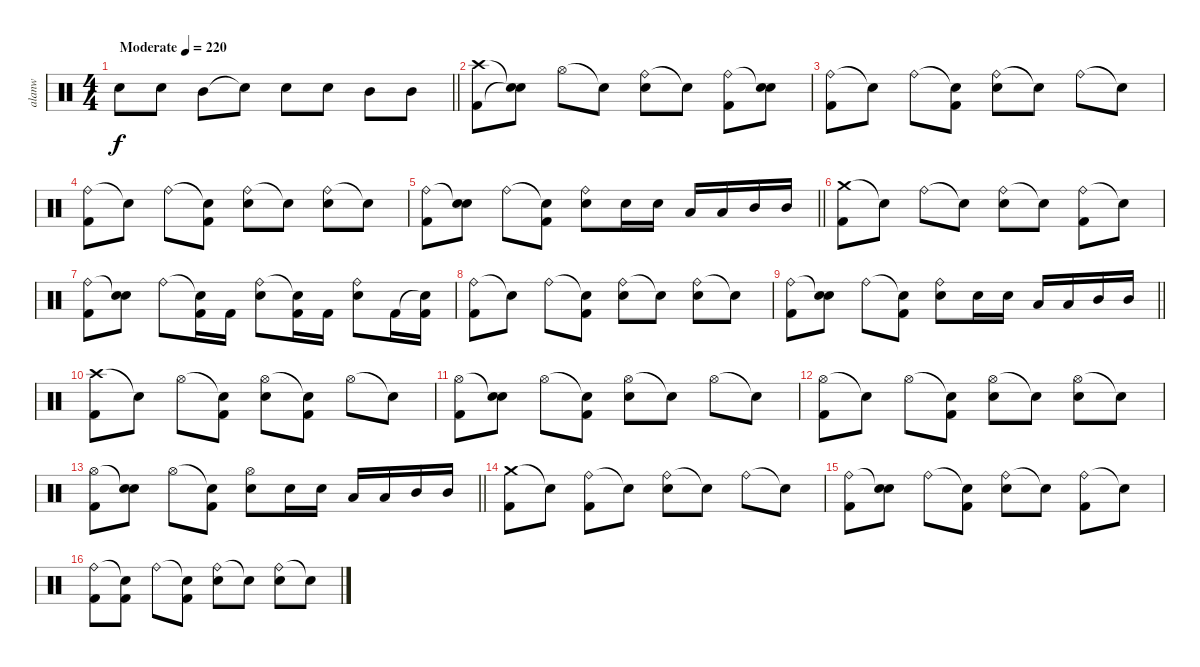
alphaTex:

\track ("alanw" "alanw") {instrument percussion}
\staff {score}
\articulation defaults
\ts (4 4)
\tempo (220 "Moderate")
\tempo 170
\tempo (220 "Moderate")
\clef neutral
\barLineRight lightlight
\ks c "Electric Snare (hit)".8{dy f} "Electric Snare (hit)".8 "Mid Tom (hit)".8 "Snare (hit)"{t}.8 "Electric Snare (hit)".8 "Electric Snare (hit)".8 "Mid Tom (hit)".8 "Mid Tom (hit)".8
|
("Crash high (hit)" "Kick (hit) 2").8 ("Snare (hit)"{t} "Snare (hit)"{t}).8 "Hi-Hat (open)".8 "Snare (hit)"{t}.8 ("Ride (bell)" "Electric Snare (hit)").8 "Snare (hit)"{t}.8 ("Ride (bell)" "Kick (hit) 2").8 ("Snare (hit)"{t} "Electric Snare (hit)").8 |
("Ride (bell)" "Kick (hit) 2").8 "Snare (hit)"{t}.8 "Ride (bell)".8 ("Snare (hit)"{t} "Kick (hit) 2").8 ("Ride (bell)" "Electric Snare (hit)").8 "Snare (hit)"{t}.8 "Ride (bell)".8 "Snare (hit)"{t}.8 |
("Ride (bell)" "Kick (hit) 2").8 "Snare (hit)"{t}.8 "Ride (bell)".8 ("Snare (hit)"{t} "Kick (hit) 2").8 ("Ride (bell)" "Electric Snare (hit)").8 "Snare (hit)"{t}.8 ("Ride (bell)" "Electric Snare (hit)").8 "Snare (hit)"{t}.8 |
\barLineRight lightlight
("Ride (bell)" "Kick (hit) 2").8 ("Snare (hit)"{t} "Electric Snare (hit)").8 "Ride (bell)".8 ("Snare (hit)"{t} "Kick (hit) 2").8 ("Ride (bell)" "Electric Snare (hit)").8 "Electric Snare (hit)".16 "Electric Snare (hit)".16 "Low Tom (hit)".16 "Low Tom (hit)".16 "Mid Tom (hit)".16 "Mid Tom (hit)".16 |
("Crash medium (hit)" "Kick (hit) 2").8 "Snare (hit)"{t}.8 "Ride (bell)".8 "Snare (hit)"{t}.8 ("Ride (bell)" "Electric Snare (hit)").8 "Snare (hit)"{t}.8 ("Ride (bell)" "Kick (hit) 2").8 "Snare (hit)"{t}.8 |
("Ride (bell)" "Kick (hit) 2").8 ("Snare (hit)"{t} "Electric Snare (hit)").8 "Ride (bell)".8 ("Snare (hit)"{t} "Kick (hit) 2").16 "Kick (hit) 2".16 ("Ride (bell)" "Electric Snare (hit)").8 ("Snare (hit)"{t} "Kick (hit) 2").16 "Kick (hit) 2".16 ("Ride (bell)" "Electric Snare (hit)").8 "Kick (hit) 2".16 ("Snare (hit)"{t} "Kick (hit) 2").16 |
("Ride (bell)" "Kick (hit) 2").8 "Snare (hit)"{t}.8 "Ride (bell)".8 ("Snare (hit)"{t} "Kick (hit) 2").8 ("Ride (bell)" "Electric Snare (hit)").8 "Snare (hit)"{t}.8 ("Ride (bell)" "Electric Snare (hit)").8 "Snare (hit)"{t}.8 |
\barLineRight lightlight
("Ride (bell)" "Kick (hit) 2").8 ("Snare (hit)"{t} "Electric Snare (hit)").8 "Ride (bell)".8 ("Snare (hit)"{t} "Kick (hit) 2").8 ("Ride (bell)" "Electric Snare (hit)").8 "Electric Snare (hit)".16 "Electric Snare (hit)".16 "Low Tom (hit)".16 "Low Tom (hit)".16 "Mid Tom (hit)".16 "Mid Tom (hit)".16 |
("Crash high (hit)" "Kick (hit) 2").8 "Snare (hit)"{t}.8 "Hi-Hat (open)".8 ("Snare (hit)"{t} "Kick (hit) 2").8 ("Hi-Hat (open)" "Electric Snare (hit)").8 ("Snare (hit)"{t} "Kick (hit) 2").8 "Hi-Hat (open)".8 "Snare (hit)"{t}.8 |
("Hi-Hat (open)" "Kick (hit) 2").8 ("Snare (hit)"{t} "Electric Snare (hit)").8 "Hi-Hat (open)".8 ("Snare (hit)"{t} "Kick (hit) 2").8 ("Hi-Hat (open)" "Electric Snare (hit)").8 "Snare (hit)"{t}.8 "Hi-Hat (open)".8 "Snare (hit)"{t}.8 |
("Hi-Hat (open)" "Kick (hit) 2").8 "Snare (hit)"{t}.8 "Hi-Hat (open)".8 ("Snare (hit)"{t} "Kick (hit) 2").8 ("Hi-Hat (open)" "Electric Snare (hit)").8 "Snare (hit)"{t}.8 ("Hi-Hat (open)" "Electric Snare (hit)").8 "Snare (hit)"{t}.8 |
\barLineRight lightlight
("Hi-Hat (open)" "Kick (hit) 2").8 ("Snare (hit)"{t} "Electric Snare (hit)").8 "Hi-Hat (open)".8 ("Snare (hit)"{t} "Kick (hit) 2").8 ("Hi-Hat (open)" "Electric Snare (hit)").8 "Electric Snare (hit)".16 "Electric Snare (hit)".16 "Low Tom (hit)".16 "Low Tom (hit)".16 "Mid Tom (hit)".16 "Mid Tom (hit)".16 |
("Crash medium (hit)" "Kick (hit) 2").8 "Snare (hit)"{t}.8 ("Ride (bell)" "Kick (hit) 2").8 "Snare (hit)"{t}.8 ("Ride (bell)" "Electric Snare (hit)").8 "Snare (hit)"{t}.8 "Ride (bell)".8 "Snare (hit)"{t}.8 |
("Ride (bell)" "Kick (hit) 2").8 ("Snare (hit)"{t} "Electric Snare (hit)").8 "Ride (bell)".8 ("Snare (hit)"{t} "Kick (hit) 2").8 ("Ride (bell)" "Electric Snare (hit)").8 "Snare (hit)"{t}.8 ("Ride (bell)" "Kick (hit) 2").8 "Snare (hit)"{t}.8 |
("Ride (bell)" "Kick (hit) 2").8 ("Snare (hit)"{t} "Kick (hit) 2").8 "Ride (bell)".8 ("Snare (hit)"{t} "Kick (hit) 2").8 ("Ride (bell)" "Electric Snare (hit)").8 "Snare (hit)"{t}.8 ("Ride (bell)" "Electric Snare (hit)").8 "Snare (hit)"{t}.8
